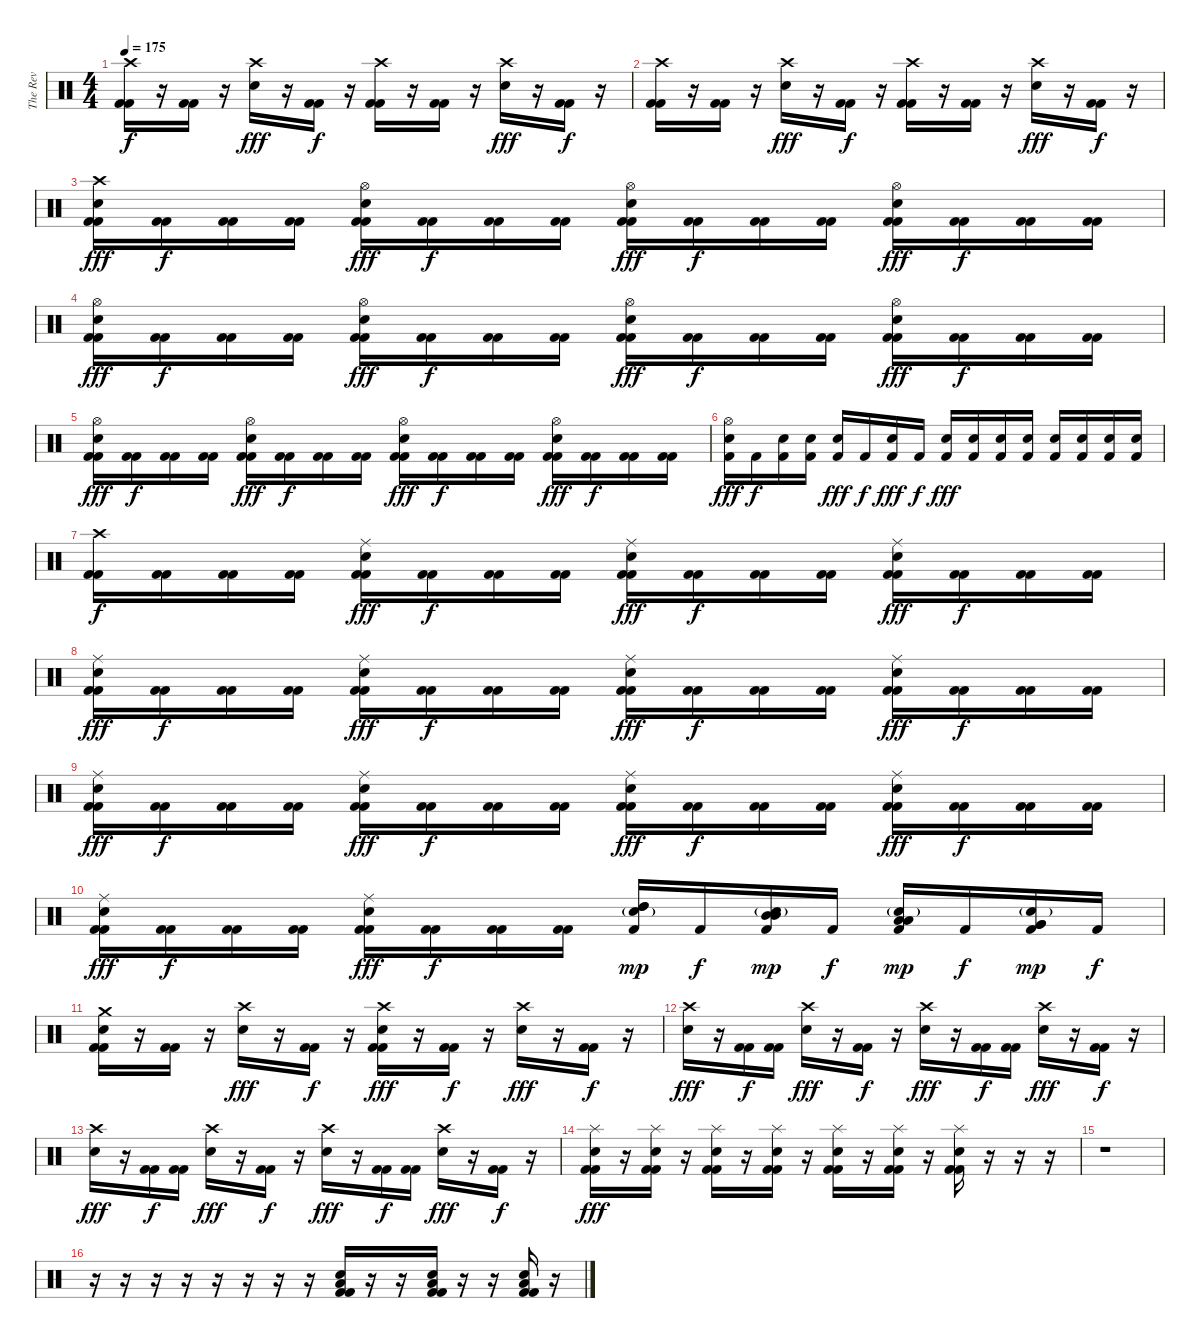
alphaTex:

\track ("The Rev" "The Rev") {instrument percussion}
\staff {score}
\articulation defaults
\ts (4 4)
\tempo 175
\clef neutral
\ks c
("Crash high (hit)" "Kick (hit) 2" "Kick (hit) 2").16{dy f} r.16 ("Kick (hit) 2" "Kick (hit) 2").16 r.16 ("Crash high (hit)" "Electric Snare (hit)").16{dy fff} r.16 ("Kick (hit) 2" "Kick (hit) 2").16{dy f} r.16 ("Crash high (hit)" "Kick (hit) 2" "Kick (hit) 2").16 r.16 ("Kick (hit) 2" "Kick (hit) 2").16 r.16 ("Crash high (hit)" "Electric Snare (hit)").16{dy fff} r.16 ("Kick (hit) 2" "Kick (hit) 2").16{dy f} r.16 |
("Crash high (hit)" "Kick (hit) 2" "Kick (hit) 2").16 r.16 ("Kick (hit) 2" "Kick (hit) 2").16 r.16 ("Crash high (hit)" "Electric Snare (hit)").16{dy fff} r.16 ("Kick (hit) 2" "Kick (hit) 2").16{dy f} r.16 ("Crash high (hit)" "Kick (hit) 2" "Kick (hit) 2").16 r.16 ("Kick (hit) 2" "Kick (hit) 2").16 r.16 ("Crash high (hit)" "Electric Snare (hit)").16{dy fff} r.16 ("Kick (hit) 2" "Kick (hit) 2").16{dy f} r.16 |
("Crash high (hit)" "Electric Snare (hit)" "Kick (hit) 2" "Kick (hit) 2").16{dy fff} ("Kick (hit) 2" "Kick (hit) 2").16{dy f} ("Kick (hit) 2" "Kick (hit) 2").16 ("Kick (hit) 2" "Kick (hit) 2").16 ("Hi-Hat (open)" "Electric Snare (hit)" "Kick (hit) 2" "Kick (hit) 2").16{dy fff} ("Kick (hit) 2" "Kick (hit) 2").16{dy f} ("Kick (hit) 2" "Kick (hit) 2").16 ("Kick (hit) 2" "Kick (hit) 2").16 ("Hi-Hat (open)" "Electric Snare (hit)" "Kick (hit) 2" "Kick (hit) 2").16{dy fff} ("Kick (hit) 2" "Kick (hit) 2").16{dy f} ("Kick (hit) 2" "Kick (hit) 2").16 ("Kick (hit) 2" "Kick (hit) 2").16 ("Hi-Hat (open)" "Electric Snare (hit)" "Kick (hit) 2" "Kick (hit) 2").16{dy fff} ("Kick (hit) 2" "Kick (hit) 2").16{dy f} ("Kick (hit) 2" "Kick (hit) 2").16 ("Kick (hit) 2" "Kick (hit) 2").16 |
("Hi-Hat (open)" "Electric Snare (hit)" "Kick (hit) 2" "Kick (hit) 2").16{dy fff} ("Kick (hit) 2" "Kick (hit) 2").16{dy f} ("Kick (hit) 2" "Kick (hit) 2").16 ("Kick (hit) 2" "Kick (hit) 2").16 ("Hi-Hat (open)" "Electric Snare (hit)" "Kick (hit) 2" "Kick (hit) 2").16{dy fff} ("Kick (hit) 2" "Kick (hit) 2").16{dy f} ("Kick (hit) 2" "Kick (hit) 2").16 ("Kick (hit) 2" "Kick (hit) 2").16 ("Hi-Hat (open)" "Electric Snare (hit)" "Kick (hit) 2" "Kick (hit) 2").16{dy fff} ("Kick (hit) 2" "Kick (hit) 2").16{dy f} ("Kick (hit) 2" "Kick (hit) 2").16 ("Kick (hit) 2" "Kick (hit) 2").16 ("Hi-Hat (open)" "Electric Snare (hit)" "Kick (hit) 2" "Kick (hit) 2").16{dy fff} ("Kick (hit) 2" "Kick (hit) 2").16{dy f} ("Kick (hit) 2" "Kick (hit) 2").16 ("Kick (hit) 2" "Kick (hit) 2").16 |
("Hi-Hat (open)" "Electric Snare (hit)" "Kick (hit) 2" "Kick (hit) 2").16{dy fff} ("Kick (hit) 2" "Kick (hit) 2").16{dy f} ("Kick (hit) 2" "Kick (hit) 2").16 ("Kick (hit) 2" "Kick (hit) 2").16 ("Hi-Hat (open)" "Electric Snare (hit)" "Kick (hit) 2" "Kick (hit) 2").16{dy fff} ("Kick (hit) 2" "Kick (hit) 2").16{dy f} ("Kick (hit) 2" "Kick (hit) 2").16 ("Kick (hit) 2" "Kick (hit) 2").16 ("Hi-Hat (open)" "Electric Snare (hit)" "Kick (hit) 2" "Kick (hit) 2").16{dy fff} ("Kick (hit) 2" "Kick (hit) 2").16{dy f} ("Kick (hit) 2" "Kick (hit) 2").16 ("Kick (hit) 2" "Kick (hit) 2").16 ("Hi-Hat (open)" "Electric Snare (hit)" "Kick (hit) 2" "Kick (hit) 2").16{dy fff} ("Kick (hit) 2" "Kick (hit) 2").16{dy f} ("Kick (hit) 2" "Kick (hit) 2").16 ("Kick (hit) 2" "Kick (hit) 2").16 |
("Hi-Hat (open)" "Electric Snare (hit)" "Kick (hit) 2").16{dy fff} "Kick (hit) 2".16{dy f} ("Electric Snare (hit)" "Kick (hit) 2").16 ("Electric Snare (hit)" "Kick (hit) 2").16 ("Electric Snare (hit)" "Kick (hit) 2").16{dy fff} "Kick (hit) 2".16{dy f} ("Electric Snare (hit)" "Kick (hit) 2").16{dy fff} "Kick (hit) 2".16{dy f} ("Electric Snare (hit)" "Kick (hit) 2").16{dy fff} ("Electric Snare (hit)" "Kick (hit) 2").16 ("Electric Snare (hit)" "Kick (hit) 2").16 ("Electric Snare (hit)" "Kick (hit) 2").16 ("Electric Snare (hit)" "Kick (hit) 2").16 ("Electric Snare (hit)" "Kick (hit) 2").16 ("Electric Snare (hit)" "Kick (hit) 2").16 ("Electric Snare (hit)" "Kick (hit) 2").16 |
("Crash high (hit)" "Kick (hit) 2" "Kick (hit) 2").16{dy f} ("Kick (hit) 2" "Kick (hit) 2").16 ("Kick (hit) 2" "Kick (hit) 2").16 ("Kick (hit) 2" "Kick (hit) 2").16 ("Ride (middle)" "Electric Snare (hit)" "Kick (hit) 2" "Kick (hit) 2").16{dy fff} ("Kick (hit) 2" "Kick (hit) 2").16{dy f} ("Kick (hit) 2" "Kick (hit) 2").16 ("Kick (hit) 2" "Kick (hit) 2").16 ("Ride (middle)" "Electric Snare (hit)" "Kick (hit) 2" "Kick (hit) 2").16{dy fff} ("Kick (hit) 2" "Kick (hit) 2").16{dy f} ("Kick (hit) 2" "Kick (hit) 2").16 ("Kick (hit) 2" "Kick (hit) 2").16 ("Ride (middle)" "Electric Snare (hit)" "Kick (hit) 2" "Kick (hit) 2").16{dy fff} ("Kick (hit) 2" "Kick (hit) 2").16{dy f} ("Kick (hit) 2" "Kick (hit) 2").16 ("Kick (hit) 2" "Kick (hit) 2").16 |
("Ride (middle)" "Electric Snare (hit)" "Kick (hit) 2" "Kick (hit) 2").16{dy fff} ("Kick (hit) 2" "Kick (hit) 2").16{dy f} ("Kick (hit) 2" "Kick (hit) 2").16 ("Kick (hit) 2" "Kick (hit) 2").16 ("Ride (middle)" "Electric Snare (hit)" "Kick (hit) 2" "Kick (hit) 2").16{dy fff} ("Kick (hit) 2" "Kick (hit) 2").16{dy f} ("Kick (hit) 2" "Kick (hit) 2").16 ("Kick (hit) 2" "Kick (hit) 2").16 ("Ride (middle)" "Electric Snare (hit)" "Kick (hit) 2" "Kick (hit) 2").16{dy fff} ("Kick (hit) 2" "Kick (hit) 2").16{dy f} ("Kick (hit) 2" "Kick (hit) 2").16 ("Kick (hit) 2" "Kick (hit) 2").16 ("Ride (middle)" "Electric Snare (hit)" "Kick (hit) 2" "Kick (hit) 2").16{dy fff} ("Kick (hit) 2" "Kick (hit) 2").16{dy f} ("Kick (hit) 2" "Kick (hit) 2").16 ("Kick (hit) 2" "Kick (hit) 2").16 |
("Ride (middle)" "Electric Snare (hit)" "Kick (hit) 2" "Kick (hit) 2").16{dy fff} ("Kick (hit) 2" "Kick (hit) 2").16{dy f} ("Kick (hit) 2" "Kick (hit) 2").16 ("Kick (hit) 2" "Kick (hit) 2").16 ("Ride (middle)" "Electric Snare (hit)" "Kick (hit) 2" "Kick (hit) 2").16{dy fff} ("Kick (hit) 2" "Kick (hit) 2").16{dy f} ("Kick (hit) 2" "Kick (hit) 2").16 ("Kick (hit) 2" "Kick (hit) 2").16 ("Ride (middle)" "Electric Snare (hit)" "Kick (hit) 2" "Kick (hit) 2").16{dy fff} ("Kick (hit) 2" "Kick (hit) 2").16{dy f} ("Kick (hit) 2" "Kick (hit) 2").16 ("Kick (hit) 2" "Kick (hit) 2").16 ("Ride (middle)" "Electric Snare (hit)" "Kick (hit) 2" "Kick (hit) 2").16{dy fff} ("Kick (hit) 2" "Kick (hit) 2").16{dy f} ("Kick (hit) 2" "Kick (hit) 2").16 ("Kick (hit) 2" "Kick (hit) 2").16 |
("Ride (middle)" "Electric Snare (hit)" "Kick (hit) 2" "Kick (hit) 2").16{dy fff} ("Kick (hit) 2" "Kick (hit) 2").16{dy f} ("Kick (hit) 2" "Kick (hit) 2").16 ("Kick (hit) 2" "Kick (hit) 2").16 ("Ride (middle)" "Electric Snare (hit)" "Kick (hit) 2" "Kick (hit) 2").16{dy fff} ("Kick (hit) 2" "Kick (hit) 2").16{dy f} ("Kick (hit) 2" "Kick (hit) 2").16 ("Kick (hit) 2" "Kick (hit) 2").16 ("High Tom (hit)" "High Tom (hit)" "Electric Snare (hit)"{g} "Kick (hit) 2").16{dy mp} "Kick (hit) 2".16{dy f} ("Mid Tom (hit)" "Mid Tom (hit)" "Electric Snare (hit)"{g} "Kick (hit) 2").16{dy mp} "Kick (hit) 2".16{dy f} ("Low Tom (hit)" "Low Tom (hit)" "Electric Snare (hit)"{g} "Kick (hit) 2").16{dy mp} "Kick (hit) 2".16{dy f} ("Very Low Tom (hit)" "Very Low Tom (hit)" "Electric Snare (hit)"{g} "Kick (hit) 2").16{dy mp} "Kick (hit) 2".16{dy f} |
("Crash medium (hit)" "Electric Snare (hit)" "Kick (hit) 2" "Kick (hit) 2").16 r.16 ("Kick (hit) 2" "Kick (hit) 2").16 r.16 ("Crash high (hit)" "Electric Snare (hit)").16{dy fff} r.16 ("Kick (hit) 2" "Kick (hit) 2").16{dy f} r.16 ("Crash high (hit)" "Electric Snare (hit)" "Kick (hit) 2" "Kick (hit) 2").16{dy fff} r.16 ("Kick (hit) 2" "Kick (hit) 2").16{dy f} r.16 ("Crash high (hit)" "Electric Snare (hit)").16{dy fff} r.16 ("Kick (hit) 2" "Kick (hit) 2").16{dy f} r.16 |
("Crash high (hit)" "Electric Snare (hit)").16{dy fff} r.16 ("Kick (hit) 2" "Kick (hit) 2").16{dy f} ("Kick (hit) 2" "Kick (hit) 2").16 ("Crash high (hit)" "Electric Snare (hit)").16{dy fff} r.16 ("Kick (hit) 2" "Kick (hit) 2").16{dy f} r.16 ("Crash high (hit)" "Electric Snare (hit)").16{dy fff} r.16 ("Kick (hit) 2" "Kick (hit) 2").16{dy f} ("Kick (hit) 2" "Kick (hit) 2").16 ("Crash high (hit)" "Electric Snare (hit)").16{dy fff} r.16 ("Kick (hit) 2" "Kick (hit) 2").16{dy f} r.16 |
("Crash high (hit)" "Electric Snare (hit)").16{dy fff} r.16 ("Kick (hit) 2" "Kick (hit) 2").16{dy f} ("Kick (hit) 2" "Kick (hit) 2").16 ("Crash high (hit)" "Electric Snare (hit)").16{dy fff} r.16 ("Kick (hit) 2" "Kick (hit) 2").16{dy f} r.16 ("Crash high (hit)" "Electric Snare (hit)").16{dy fff} r.16 ("Kick (hit) 2" "Kick (hit) 2").16{dy f} ("Kick (hit) 2" "Kick (hit) 2").16 ("Crash high (hit)" "Electric Snare (hit)").16{dy fff} r.16 ("Kick (hit) 2" "Kick (hit) 2").16{dy f} r.16 |
("Splash (hit)" "Electric Snare (hit)" "Kick (hit) 2" "Kick (hit) 2").16{dy fff} r.16 ("Splash (hit)" "Electric Snare (hit)" "Kick (hit) 2" "Kick (hit) 2").16 r.16 ("Splash (hit)" "Electric Snare (hit)" "Kick (hit) 2" "Kick (hit) 2").16 r.16 ("Splash (hit)" "Electric Snare (hit)" "Kick (hit) 2" "Kick (hit) 2").16 r.16 ("Splash (hit)" "Electric Snare (hit)" "Kick (hit) 2" "Kick (hit) 2").16 r.16 ("Splash (hit)" "Electric Snare (hit)" "Kick (hit) 2" "Kick (hit) 2").16 r.16 ("Splash (hit)" "Electric Snare (hit)" "Kick (hit) 2" "Kick (hit) 2").16 r.16 r.16 r.16 |
r.1 |
r.16 r.16 r.16 r.16 r.16 r.16 r.16 r.16 ("Electric Snare (hit)" "Low Floor Tom (hit)" "Kick (hit) 2" "Kick (hit) 2").16 r.16 r.16 ("Electric Snare (hit)" "Low Floor Tom (hit)" "Kick (hit) 2" "Kick (hit) 2").16 r.16 r.16 ("Electric Snare (hit)" "Low Floor Tom (hit)" "Kick (hit) 2" "Kick (hit) 2").16 r.16
